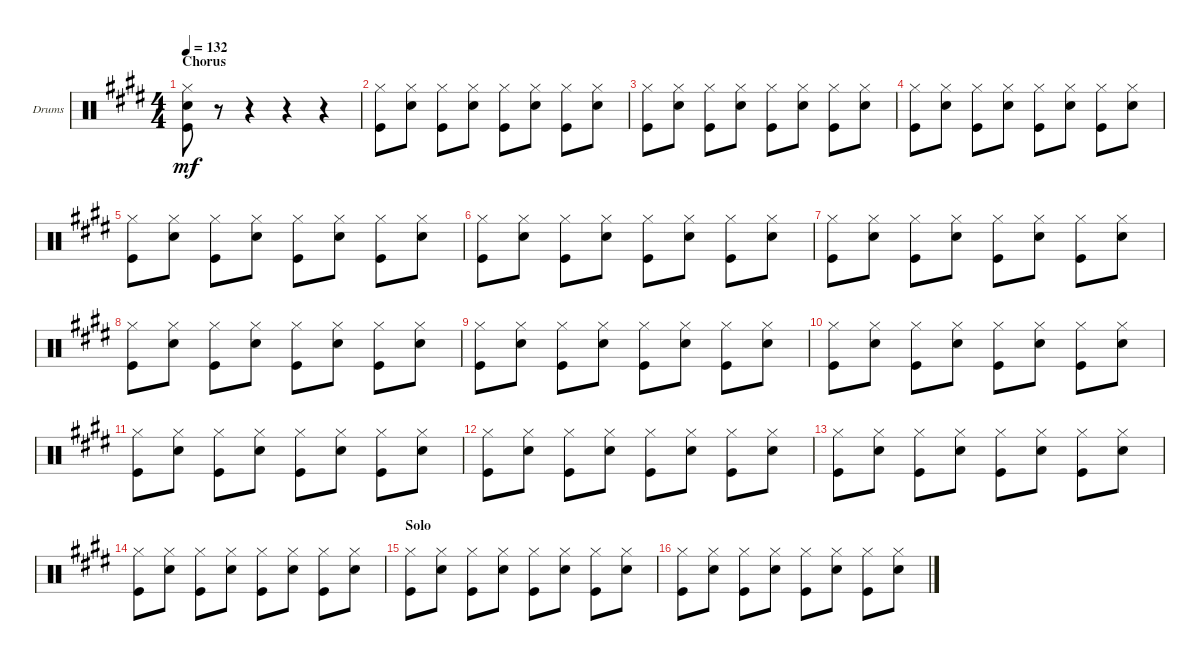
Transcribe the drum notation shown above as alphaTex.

\defaultSystemsLayout 4
\bracketExtendMode groupsimilarinstruments
\firstSystemTrackNameOrientation horizontal
\otherSystemsTrackNameOrientation horizontal
\track ("Drumkit" "Drums") {instrument percussion}
\staff {score}
\articulation defaults
\ts (4 4)
\section ("" "Chorus")
\tempo 132
\clef neutral
\ks c#minor
("Kick (hit)" "Snare (hit) 2" "Hi-Hat (closed)").8{dy mf} r.8 r.4 r.4 r.4 |
("Kick (hit)" "Hi-Hat (closed)").8 ("Snare (hit) 2" "Hi-Hat (closed)").8 ("Kick (hit)" "Hi-Hat (closed)").8 ("Snare (hit) 2" "Hi-Hat (closed)").8 ("Kick (hit)" "Hi-Hat (closed)").8 ("Snare (hit) 2" "Hi-Hat (closed)").8 ("Kick (hit)" "Hi-Hat (closed)").8 ("Snare (hit) 2" "Hi-Hat (closed)").8 |
("Kick (hit)" "Hi-Hat (closed)").8 ("Snare (hit) 2" "Hi-Hat (closed)").8 ("Kick (hit)" "Hi-Hat (closed)").8 ("Snare (hit) 2" "Hi-Hat (closed)").8 ("Kick (hit)" "Hi-Hat (closed)").8 ("Snare (hit) 2" "Hi-Hat (closed)").8 ("Kick (hit)" "Hi-Hat (closed)").8 ("Snare (hit) 2" "Hi-Hat (closed)").8 |
("Kick (hit)" "Hi-Hat (closed)").8 ("Snare (hit) 2" "Hi-Hat (closed)").8 ("Kick (hit)" "Hi-Hat (closed)").8 ("Snare (hit) 2" "Hi-Hat (closed)").8 ("Kick (hit)" "Hi-Hat (closed)").8 ("Snare (hit) 2" "Hi-Hat (closed)").8 ("Kick (hit)" "Hi-Hat (closed)").8 ("Snare (hit) 2" "Hi-Hat (closed)").8 |
("Kick (hit)" "Hi-Hat (closed)").8 ("Snare (hit) 2" "Hi-Hat (closed)").8 ("Kick (hit)" "Hi-Hat (closed)").8 ("Snare (hit) 2" "Hi-Hat (closed)").8 ("Kick (hit)" "Hi-Hat (closed)").8 ("Snare (hit) 2" "Hi-Hat (closed)").8 ("Kick (hit)" "Hi-Hat (closed)").8 ("Snare (hit) 2" "Hi-Hat (closed)").8 |
("Kick (hit)" "Hi-Hat (closed)").8 ("Snare (hit) 2" "Hi-Hat (closed)").8 ("Kick (hit)" "Hi-Hat (closed)").8 ("Snare (hit) 2" "Hi-Hat (closed)").8 ("Kick (hit)" "Hi-Hat (closed)").8 ("Snare (hit) 2" "Hi-Hat (closed)").8 ("Kick (hit)" "Hi-Hat (closed)").8 ("Snare (hit) 2" "Hi-Hat (closed)").8 |
("Kick (hit)" "Hi-Hat (closed)").8 ("Snare (hit) 2" "Hi-Hat (closed)").8 ("Kick (hit)" "Hi-Hat (closed)").8 ("Snare (hit) 2" "Hi-Hat (closed)").8 ("Kick (hit)" "Hi-Hat (closed)").8 ("Snare (hit) 2" "Hi-Hat (closed)").8 ("Kick (hit)" "Hi-Hat (closed)").8 ("Snare (hit) 2" "Hi-Hat (closed)").8 |
("Kick (hit)" "Hi-Hat (closed)").8 ("Snare (hit) 2" "Hi-Hat (closed)").8 ("Kick (hit)" "Hi-Hat (closed)").8 ("Snare (hit) 2" "Hi-Hat (closed)").8 ("Kick (hit)" "Hi-Hat (closed)").8 ("Snare (hit) 2" "Hi-Hat (closed)").8 ("Kick (hit)" "Hi-Hat (closed)").8 ("Snare (hit) 2" "Hi-Hat (closed)").8 |
("Kick (hit)" "Hi-Hat (closed)").8 ("Snare (hit) 2" "Hi-Hat (closed)").8 ("Kick (hit)" "Hi-Hat (closed)").8 ("Snare (hit) 2" "Hi-Hat (closed)").8 ("Kick (hit)" "Hi-Hat (closed)").8 ("Snare (hit) 2" "Hi-Hat (closed)").8 ("Kick (hit)" "Hi-Hat (closed)").8 ("Snare (hit) 2" "Hi-Hat (closed)").8 |
("Kick (hit)" "Hi-Hat (closed)").8 ("Snare (hit) 2" "Hi-Hat (closed)").8 ("Kick (hit)" "Hi-Hat (closed)").8 ("Snare (hit) 2" "Hi-Hat (closed)").8 ("Kick (hit)" "Hi-Hat (closed)").8 ("Snare (hit) 2" "Hi-Hat (closed)").8 ("Kick (hit)" "Hi-Hat (closed)").8 ("Snare (hit) 2" "Hi-Hat (closed)").8 |
("Kick (hit)" "Hi-Hat (closed)").8 ("Snare (hit) 2" "Hi-Hat (closed)").8 ("Kick (hit)" "Hi-Hat (closed)").8 ("Snare (hit) 2" "Hi-Hat (closed)").8 ("Kick (hit)" "Hi-Hat (closed)").8 ("Snare (hit) 2" "Hi-Hat (closed)").8 ("Kick (hit)" "Hi-Hat (closed)").8 ("Snare (hit) 2" "Hi-Hat (closed)").8 |
("Kick (hit)" "Hi-Hat (closed)").8 ("Snare (hit) 2" "Hi-Hat (closed)").8 ("Kick (hit)" "Hi-Hat (closed)").8 ("Snare (hit) 2" "Hi-Hat (closed)").8 ("Kick (hit)" "Hi-Hat (closed)").8 ("Snare (hit) 2" "Hi-Hat (closed)").8 ("Kick (hit)" "Hi-Hat (closed)").8 ("Snare (hit) 2" "Hi-Hat (closed)").8 |
("Kick (hit)" "Hi-Hat (closed)").8 ("Snare (hit) 2" "Hi-Hat (closed)").8 ("Kick (hit)" "Hi-Hat (closed)").8 ("Snare (hit) 2" "Hi-Hat (closed)").8 ("Kick (hit)" "Hi-Hat (closed)").8 ("Snare (hit) 2" "Hi-Hat (closed)").8 ("Kick (hit)" "Hi-Hat (closed)").8 ("Snare (hit) 2" "Hi-Hat (closed)").8 |
("Kick (hit)" "Hi-Hat (closed)").8 ("Snare (hit) 2" "Hi-Hat (closed)").8 ("Kick (hit)" "Hi-Hat (closed)").8 ("Snare (hit) 2" "Hi-Hat (closed)").8 ("Kick (hit)" "Hi-Hat (closed)").8 ("Snare (hit) 2" "Hi-Hat (closed)").8 ("Kick (hit)" "Hi-Hat (closed)").8 ("Snare (hit) 2" "Hi-Hat (closed)").8 |
\section ("" "Solo")
("Kick (hit)" "Hi-Hat (closed)").8 ("Snare (hit) 2" "Hi-Hat (closed)").8 ("Kick (hit)" "Hi-Hat (closed)").8 ("Snare (hit) 2" "Hi-Hat (closed)").8 ("Kick (hit)" "Hi-Hat (closed)").8 ("Snare (hit) 2" "Hi-Hat (closed)").8 ("Kick (hit)" "Hi-Hat (closed)").8 ("Snare (hit) 2" "Hi-Hat (closed)").8 |
("Kick (hit)" "Hi-Hat (closed)").8 ("Snare (hit) 2" "Hi-Hat (closed)").8 ("Kick (hit)" "Hi-Hat (closed)").8 ("Snare (hit) 2" "Hi-Hat (closed)").8 ("Kick (hit)" "Hi-Hat (closed)").8 ("Snare (hit) 2" "Hi-Hat (closed)").8 ("Kick (hit)" "Hi-Hat (closed)").8 ("Snare (hit) 2" "Hi-Hat (closed)").8
